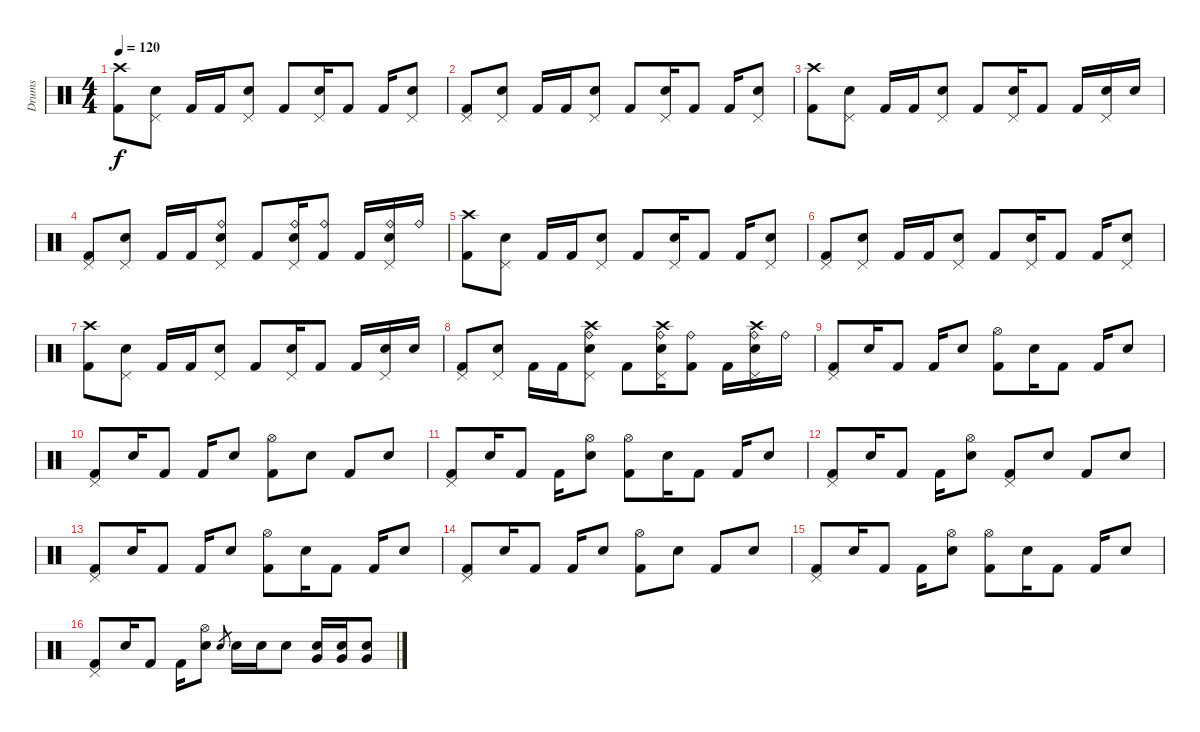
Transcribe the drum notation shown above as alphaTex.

\track ("Drums" "Drums") {instrument percussion}
\staff {score}
\articulation defaults
\ts (4 4)
\tempo 120
\clef neutral
\ks c
("Crash high (hit)" "Kick (hit) 2").8{dy f} ("Pedal Hi-Hat (hit)" "Electric Snare (hit)").8 "Kick (hit) 2".16 "Kick (hit) 2".16 ("Pedal Hi-Hat (hit)" "Electric Snare (hit)").8 "Kick (hit) 2".8 ("Pedal Hi-Hat (hit)" "Electric Snare (hit)").16 "Kick (hit) 2".8 "Kick (hit) 2".16 ("Pedal Hi-Hat (hit)" "Electric Snare (hit)").8 |
("Pedal Hi-Hat (hit)" "Kick (hit) 2").8 ("Pedal Hi-Hat (hit)" "Electric Snare (hit)").8 "Kick (hit) 2".16 "Kick (hit) 2".16 ("Pedal Hi-Hat (hit)" "Electric Snare (hit)").8 "Kick (hit) 2".8 ("Pedal Hi-Hat (hit)" "Electric Snare (hit)").16 "Kick (hit) 2".8 "Kick (hit) 2".16 ("Pedal Hi-Hat (hit)" "Electric Snare (hit)").8 |
("Crash high (hit)" "Kick (hit) 2").8 ("Pedal Hi-Hat (hit)" "Electric Snare (hit)").8 "Kick (hit) 2".16 "Kick (hit) 2".16 ("Pedal Hi-Hat (hit)" "Electric Snare (hit)").8 "Kick (hit) 2".8 ("Pedal Hi-Hat (hit)" "Electric Snare (hit)").16 "Kick (hit) 2".8 "Kick (hit) 2".16 ("Pedal Hi-Hat (hit)" "Electric Snare (hit)").16 "Electric Snare (hit)".16 |
("Pedal Hi-Hat (hit)" "Kick (hit) 2").8 ("Pedal Hi-Hat (hit)" "Electric Snare (hit)").8 "Kick (hit) 2".16 "Kick (hit) 2".16 ("Pedal Hi-Hat (hit)" "Electric Snare (hit)" "Ride (bell)").8 "Kick (hit) 2".8 ("Pedal Hi-Hat (hit)" "Electric Snare (hit)" "Ride (bell)").16 ("Ride (bell)" "Kick (hit) 2").8 "Kick (hit) 2".16 ("Pedal Hi-Hat (hit)" "Electric Snare (hit)" "Ride (bell)").16 "Ride (bell)".16 |
("Crash high (hit)" "Kick (hit) 2").8 ("Pedal Hi-Hat (hit)" "Electric Snare (hit)").8 "Kick (hit) 2".16 "Kick (hit) 2".16 ("Pedal Hi-Hat (hit)" "Electric Snare (hit)").8 "Kick (hit) 2".8 ("Pedal Hi-Hat (hit)" "Electric Snare (hit)").16 "Kick (hit) 2".8 "Kick (hit) 2".16 ("Pedal Hi-Hat (hit)" "Electric Snare (hit)").8 |
("Pedal Hi-Hat (hit)" "Kick (hit) 2").8 ("Pedal Hi-Hat (hit)" "Electric Snare (hit)").8 "Kick (hit) 2".16 "Kick (hit) 2".16 ("Pedal Hi-Hat (hit)" "Electric Snare (hit)").8 "Kick (hit) 2".8 ("Pedal Hi-Hat (hit)" "Electric Snare (hit)").16 "Kick (hit) 2".8 "Kick (hit) 2".16 ("Pedal Hi-Hat (hit)" "Electric Snare (hit)").8 |
("Crash high (hit)" "Kick (hit) 2").8 ("Pedal Hi-Hat (hit)" "Electric Snare (hit)").8 "Kick (hit) 2".16 "Kick (hit) 2".16 ("Pedal Hi-Hat (hit)" "Electric Snare (hit)").8 "Kick (hit) 2".8 ("Pedal Hi-Hat (hit)" "Electric Snare (hit)").16 "Kick (hit) 2".8 "Kick (hit) 2".16 ("Pedal Hi-Hat (hit)" "Electric Snare (hit)").16 "Electric Snare (hit)".16 |
("Pedal Hi-Hat (hit)" "Kick (hit) 2").8 ("Pedal Hi-Hat (hit)" "Electric Snare (hit)").8 "Kick (hit) 2".16 "Kick (hit) 2".16 ("Pedal Hi-Hat (hit)" "Electric Snare (hit)" "Ride (bell)" "Crash high (hit)").8 "Kick (hit) 2".8 ("Pedal Hi-Hat (hit)" "Electric Snare (hit)" "Ride (bell)" "Crash high (hit)").16 ("Ride (bell)" "Kick (hit) 2").8 "Kick (hit) 2".16 ("Pedal Hi-Hat (hit)" "Electric Snare (hit)" "Ride (bell)" "Crash high (hit)").16 "Ride (bell)".16 |
("Pedal Hi-Hat (hit)" "Kick (hit) 2").8 "Electric Snare (hit)".16 "Kick (hit) 2".8 "Kick (hit) 2".16 "Electric Snare (hit)".8 ("Hi-Hat (open)" "Kick (hit) 2").8 "Electric Snare (hit)".16 "Kick (hit) 2".8 "Kick (hit) 2".16 "Electric Snare (hit)".8 |
("Pedal Hi-Hat (hit)" "Kick (hit) 2").8 "Electric Snare (hit)".16 "Kick (hit) 2".8 "Kick (hit) 2".16 "Electric Snare (hit)".8 ("Hi-Hat (open)" "Kick (hit) 2").8 "Electric Snare (hit)".8 "Kick (hit) 2".8 "Electric Snare (hit)".8 |
("Pedal Hi-Hat (hit)" "Kick (hit) 2").8 "Electric Snare (hit)".16 "Kick (hit) 2".8 "Kick (hit) 2".16 ("Hi-Hat (open)" "Electric Snare (hit)").8 ("Hi-Hat (open)" "Kick (hit) 2").8 "Electric Snare (hit)".16 "Kick (hit) 2".8 "Kick (hit) 2".16 "Electric Snare (hit)".8 |
("Pedal Hi-Hat (hit)" "Kick (hit) 2").8 "Electric Snare (hit)".16 "Kick (hit) 2".8 "Kick (hit) 2".16 ("Hi-Hat (open)" "Electric Snare (hit)").8 ("Pedal Hi-Hat (hit)" "Kick (hit) 2").8 "Electric Snare (hit)".8 "Kick (hit) 2".8 "Electric Snare (hit)".8 |
("Pedal Hi-Hat (hit)" "Kick (hit) 2").8 "Electric Snare (hit)".16 "Kick (hit) 2".8 "Kick (hit) 2".16 "Electric Snare (hit)".8 ("Hi-Hat (open)" "Kick (hit) 2").8 "Electric Snare (hit)".16 "Kick (hit) 2".8 "Kick (hit) 2".16 "Electric Snare (hit)".8 |
("Pedal Hi-Hat (hit)" "Kick (hit) 2").8 "Electric Snare (hit)".16 "Kick (hit) 2".8 "Kick (hit) 2".16 "Electric Snare (hit)".8 ("Hi-Hat (open)" "Kick (hit) 2").8 "Electric Snare (hit)".8 "Kick (hit) 2".8 "Electric Snare (hit)".8 |
("Pedal Hi-Hat (hit)" "Kick (hit) 2").8 "Electric Snare (hit)".16 "Kick (hit) 2".8 "Kick (hit) 2".16 ("Hi-Hat (open)" "Electric Snare (hit)").8 ("Hi-Hat (open)" "Kick (hit) 2").8 "Electric Snare (hit)".16 "Kick (hit) 2".8 "Kick (hit) 2".16 "Electric Snare (hit)".8 |
("Pedal Hi-Hat (hit)" "Kick (hit) 2").8 "Electric Snare (hit)".16 "Kick (hit) 2".8 "Kick (hit) 2".16 ("Hi-Hat (open)" "Electric Snare (hit)").8 "Electric Snare (hit)".8{gr} "Electric Snare (hit)".16 "Electric Snare (hit)".16 "Electric Snare (hit)".8 ("Electric Snare (hit)" "Very Low Tom (hit)").16 ("Electric Snare (hit)" "Very Low Tom (hit)").16 ("Electric Snare (hit)" "Very Low Tom (hit)").8
